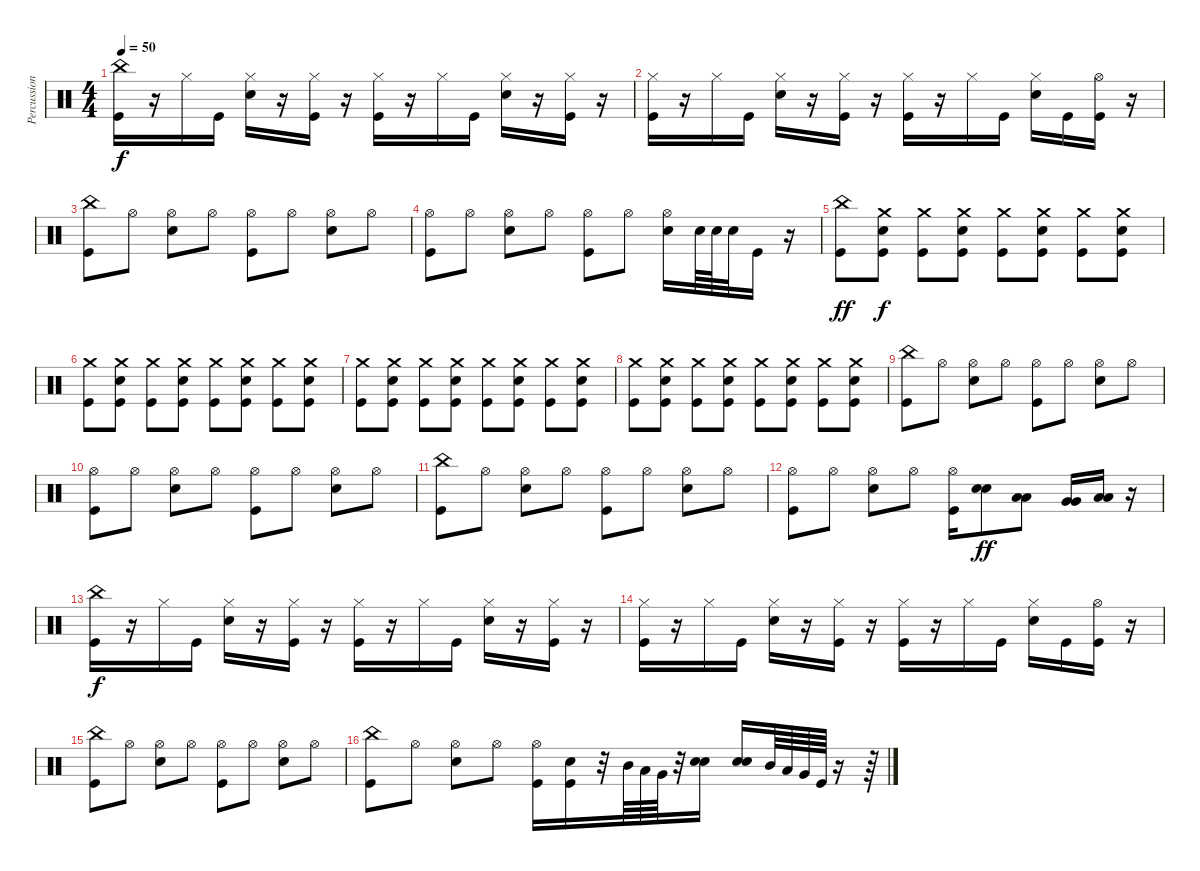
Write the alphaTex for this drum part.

\track ("Percussion" "Percussion") {instrument percussion}
\staff {score}
\articulation defaults
\ts (4 4)
\tempo 50
\clef neutral
\ks c
("China (hit)" "Kick (hit)").16{dy f} r.16 "Hi-Hat (closed)".16 "Kick (hit)".16 ("Hi-Hat (closed)" "Snare (hit) 2").16 r.16 ("Hi-Hat (closed)" "Kick (hit)").16 r.16 ("Hi-Hat (closed)" "Kick (hit)").16 r.16 "Hi-Hat (closed)".16 "Kick (hit)".16 ("Hi-Hat (closed)" "Snare (hit) 2").16 r.16 ("Hi-Hat (closed)" "Kick (hit)").16 r.16 |
("Hi-Hat (closed)" "Kick (hit)").16 r.16 "Hi-Hat (closed)".16 "Kick (hit)".16 ("Hi-Hat (closed)" "Snare (hit) 2").16 r.16 ("Hi-Hat (closed)" "Kick (hit)").16 r.16 ("Hi-Hat (closed)" "Kick (hit)").16 r.16 "Hi-Hat (closed)".16 "Kick (hit)".16 ("Hi-Hat (closed)" "Snare (hit) 2").16 "Kick (hit)".16 ("Hi-Hat (open)" "Kick (hit)").16 r.16 |
("China (hit)" "Kick (hit)").8 "Hi-Hat (open)".8 ("Hi-Hat (open)" "Snare (hit) 2").8 "Hi-Hat (open)".8 ("Hi-Hat (open)" "Kick (hit)").8 "Hi-Hat (open)".8 ("Hi-Hat (open)" "Snare (hit) 2").8 "Hi-Hat (open)".8 |
("Hi-Hat (open)" "Kick (hit)").8 "Hi-Hat (open)".8 ("Hi-Hat (open)" "Snare (hit) 2").8 "Hi-Hat (open)".8 ("Hi-Hat (open)" "Kick (hit)").8 "Hi-Hat (open)".8 ("Hi-Hat (open)" "Snare (hit) 2").16 "Snare (hit) 2".64 "Snare (hit) 2".64 "Snare (hit) 2".32 "Kick (hit)".16 r.16 |
("China (hit)" "Kick (hit)").8{dy ff} ("Crash medium (hit)" "Snare (hit) 2" "Kick (hit)").8{dy f} ("Crash medium (hit)" "Kick (hit)").8 ("Crash medium (hit)" "Snare (hit) 2" "Kick (hit)").8 ("Crash medium (hit)" "Kick (hit)").8 ("Crash medium (hit)" "Snare (hit) 2" "Kick (hit)").8 ("Crash medium (hit)" "Kick (hit)").8 ("Crash medium (hit)" "Snare (hit) 2" "Kick (hit)").8 |
("Crash medium (hit)" "Kick (hit)").8 ("Crash medium (hit)" "Snare (hit) 2" "Kick (hit)").8 ("Crash medium (hit)" "Kick (hit)").8 ("Crash medium (hit)" "Snare (hit) 2" "Kick (hit)").8 ("Crash medium (hit)" "Kick (hit)").8 ("Crash medium (hit)" "Snare (hit) 2" "Kick (hit)").8 ("Crash medium (hit)" "Kick (hit)").8 ("Crash medium (hit)" "Snare (hit) 2" "Kick (hit)").8 |
("Crash medium (hit)" "Kick (hit)").8 ("Crash medium (hit)" "Snare (hit) 2" "Kick (hit)").8 ("Crash medium (hit)" "Kick (hit)").8 ("Crash medium (hit)" "Snare (hit) 2" "Kick (hit)").8 ("Crash medium (hit)" "Kick (hit)").8 ("Crash medium (hit)" "Snare (hit) 2" "Kick (hit)").8 ("Crash medium (hit)" "Kick (hit)").8 ("Crash medium (hit)" "Snare (hit) 2" "Kick (hit)").8 |
("Crash medium (hit)" "Kick (hit)").8 ("Crash medium (hit)" "Snare (hit) 2" "Kick (hit)").8 ("Crash medium (hit)" "Kick (hit)").8 ("Crash medium (hit)" "Snare (hit) 2" "Kick (hit)").8 ("Crash medium (hit)" "Kick (hit)").8 ("Crash medium (hit)" "Snare (hit) 2" "Kick (hit)").8 ("Crash medium (hit)" "Kick (hit)").8 ("Crash medium (hit)" "Snare (hit) 2" "Kick (hit)").8 |
("China (hit)" "Kick (hit)").8 "Hi-Hat (open)".8 ("Hi-Hat (open)" "Snare (hit) 2").8 "Hi-Hat (open)".8 ("Hi-Hat (open)" "Kick (hit)").8 "Hi-Hat (open)".8 ("Hi-Hat (open)" "Snare (hit) 2").8 "Hi-Hat (open)".8 |
("Hi-Hat (open)" "Kick (hit)").8 "Hi-Hat (open)".8 ("Hi-Hat (open)" "Snare (hit) 2").8 "Hi-Hat (open)".8 ("Hi-Hat (open)" "Kick (hit)").8 "Hi-Hat (open)".8 ("Hi-Hat (open)" "Snare (hit) 2").8 "Hi-Hat (open)".8 |
("China (hit)" "Kick (hit)").8 "Hi-Hat (open)".8 ("Hi-Hat (open)" "Snare (hit) 2").8 "Hi-Hat (open)".8 ("Hi-Hat (open)" "Kick (hit)").8 "Hi-Hat (open)".8 ("Hi-Hat (open)" "Snare (hit) 2").8 "Hi-Hat (open)".8 |
("Hi-Hat (open)" "Kick (hit)").8 "Hi-Hat (open)".8 ("Hi-Hat (open)" "Snare (hit) 2").8 "Hi-Hat (open)".8 ("Hi-Hat (open)" "Kick (hit)").16 ("Snare (hit) 2" "Snare (hit) 2").8{bd 120 dy ff} ("Low Tom (hit)" "Low Tom (hit)").8{bd 120} ("Very Low Tom (hit)" "Very Low Tom (hit)").16{bd 120} ("Low Floor Tom (hit)" "Low Floor Tom (hit)").16{bd 120} r.16 |
("China (hit)" "Kick (hit)").16{dy f} r.16 "Hi-Hat (closed)".16 "Kick (hit)".16 ("Hi-Hat (closed)" "Snare (hit) 2").16 r.16 ("Hi-Hat (closed)" "Kick (hit)").16 r.16 ("Hi-Hat (closed)" "Kick (hit)").16 r.16 "Hi-Hat (closed)".16 "Kick (hit)".16 ("Hi-Hat (closed)" "Snare (hit) 2").16 r.16 ("Hi-Hat (closed)" "Kick (hit)").16 r.16 |
("Hi-Hat (closed)" "Kick (hit)").16 r.16 "Hi-Hat (closed)".16 "Kick (hit)".16 ("Hi-Hat (closed)" "Snare (hit) 2").16 r.16 ("Hi-Hat (closed)" "Kick (hit)").16 r.16 ("Hi-Hat (closed)" "Kick (hit)").16 r.16 "Hi-Hat (closed)".16 "Kick (hit)".16 ("Hi-Hat (closed)" "Snare (hit) 2").16 "Kick (hit)".16 ("Hi-Hat (open)" "Kick (hit)").16 r.16 |
("China (hit)" "Kick (hit)").8 "Hi-Hat (open)".8 ("Hi-Hat (open)" "Snare (hit) 2").8 "Hi-Hat (open)".8 ("Hi-Hat (open)" "Kick (hit)").8 "Hi-Hat (open)".8 ("Hi-Hat (open)" "Snare (hit) 2").8 "Hi-Hat (open)".8 |
("China (hit)" "Kick (hit)").8 "Hi-Hat (open)".8 ("Hi-Hat (open)" "Snare (hit) 2").8 "Hi-Hat (open)".8 ("Hi-Hat (open)" "Kick (hit)").16 ("Snare (hit) 2" "Kick (hit)").16{bd 120} r.32 "Mid Tom (hit)".64 "Low Tom (hit)".64 "Very Low Tom (hit)".64 r.32 ("Snare (hit) 2" "Snare (hit) 2").16{bd 240} ("Snare (hit) 2" "Snare (hit) 2").16{bd 240} "Mid Tom (hit)".64 "Low Tom (hit)".64 "Very Low Tom (hit)".64 "Kick (hit)".64 r.16 r.64
